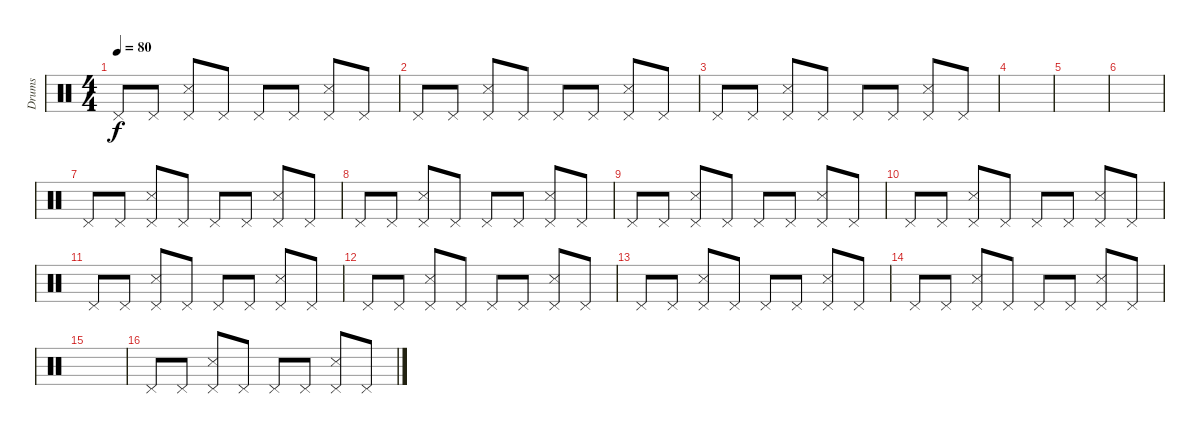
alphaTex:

\track ("Drums" "Drums") {instrument percussion}
\staff {score}
\articulation defaults
\ts (4 4)
\tempo 80
\clef neutral
\ks c "Pedal Hi-Hat (hit)".8{dy f} "Pedal Hi-Hat (hit)".8
("Pedal Hi-Hat (hit)" "Snare (side stick) 3").8 "Pedal Hi-Hat (hit)".8 "Pedal Hi-Hat (hit)".8 "Pedal Hi-Hat (hit)".8 ("Pedal Hi-Hat (hit)" "Snare (side stick) 3").8 "Pedal Hi-Hat (hit)".8 |
"Pedal Hi-Hat (hit)".8 "Pedal Hi-Hat (hit)".8 ("Pedal Hi-Hat (hit)" "Snare (side stick) 3").8 "Pedal Hi-Hat (hit)".8 "Pedal Hi-Hat (hit)".8 "Pedal Hi-Hat (hit)".8 ("Pedal Hi-Hat (hit)" "Snare (side stick) 3").8 "Pedal Hi-Hat (hit)".8 |
"Pedal Hi-Hat (hit)".8 "Pedal Hi-Hat (hit)".8 ("Pedal Hi-Hat (hit)" "Snare (side stick) 3").8 "Pedal Hi-Hat (hit)".8 "Pedal Hi-Hat (hit)".8 "Pedal Hi-Hat (hit)".8 ("Pedal Hi-Hat (hit)" "Snare (side stick) 3").8 "Pedal Hi-Hat (hit)".8 |
|
|
|
"Pedal Hi-Hat (hit)".8 "Pedal Hi-Hat (hit)".8 ("Pedal Hi-Hat (hit)" "Snare (side stick) 3").8 "Pedal Hi-Hat (hit)".8 "Pedal Hi-Hat (hit)".8 "Pedal Hi-Hat (hit)".8 ("Pedal Hi-Hat (hit)" "Snare (side stick) 3").8 "Pedal Hi-Hat (hit)".8 |
"Pedal Hi-Hat (hit)".8 "Pedal Hi-Hat (hit)".8 ("Pedal Hi-Hat (hit)" "Snare (side stick) 3").8 "Pedal Hi-Hat (hit)".8 "Pedal Hi-Hat (hit)".8 "Pedal Hi-Hat (hit)".8 ("Pedal Hi-Hat (hit)" "Snare (side stick) 3").8 "Pedal Hi-Hat (hit)".8 |
"Pedal Hi-Hat (hit)".8 "Pedal Hi-Hat (hit)".8 ("Pedal Hi-Hat (hit)" "Snare (side stick) 3").8 "Pedal Hi-Hat (hit)".8 "Pedal Hi-Hat (hit)".8 "Pedal Hi-Hat (hit)".8 ("Pedal Hi-Hat (hit)" "Snare (side stick) 3").8 "Pedal Hi-Hat (hit)".8 |
"Pedal Hi-Hat (hit)".8 "Pedal Hi-Hat (hit)".8 ("Pedal Hi-Hat (hit)" "Snare (side stick) 3").8 "Pedal Hi-Hat (hit)".8 "Pedal Hi-Hat (hit)".8 "Pedal Hi-Hat (hit)".8 ("Pedal Hi-Hat (hit)" "Snare (side stick) 3").8 "Pedal Hi-Hat (hit)".8 |
"Pedal Hi-Hat (hit)".8 "Pedal Hi-Hat (hit)".8 ("Pedal Hi-Hat (hit)" "Snare (side stick) 3").8 "Pedal Hi-Hat (hit)".8 "Pedal Hi-Hat (hit)".8 "Pedal Hi-Hat (hit)".8 ("Pedal Hi-Hat (hit)" "Snare (side stick) 3").8 "Pedal Hi-Hat (hit)".8 |
"Pedal Hi-Hat (hit)".8 "Pedal Hi-Hat (hit)".8 ("Pedal Hi-Hat (hit)" "Snare (side stick) 3").8 "Pedal Hi-Hat (hit)".8 "Pedal Hi-Hat (hit)".8 "Pedal Hi-Hat (hit)".8 ("Pedal Hi-Hat (hit)" "Snare (side stick) 3").8 "Pedal Hi-Hat (hit)".8 |
"Pedal Hi-Hat (hit)".8 "Pedal Hi-Hat (hit)".8 ("Pedal Hi-Hat (hit)" "Snare (side stick) 3").8 "Pedal Hi-Hat (hit)".8 "Pedal Hi-Hat (hit)".8 "Pedal Hi-Hat (hit)".8 ("Pedal Hi-Hat (hit)" "Snare (side stick) 3").8 "Pedal Hi-Hat (hit)".8 |
"Pedal Hi-Hat (hit)".8 "Pedal Hi-Hat (hit)".8 ("Pedal Hi-Hat (hit)" "Snare (side stick) 3").8 "Pedal Hi-Hat (hit)".8 "Pedal Hi-Hat (hit)".8 "Pedal Hi-Hat (hit)".8 ("Pedal Hi-Hat (hit)" "Snare (side stick) 3").8 "Pedal Hi-Hat (hit)".8 |
|
"Pedal Hi-Hat (hit)".8 "Pedal Hi-Hat (hit)".8 ("Pedal Hi-Hat (hit)" "Snare (side stick) 3").8 "Pedal Hi-Hat (hit)".8 "Pedal Hi-Hat (hit)".8 "Pedal Hi-Hat (hit)".8 ("Pedal Hi-Hat (hit)" "Snare (side stick) 3").8 "Pedal Hi-Hat (hit)".8
